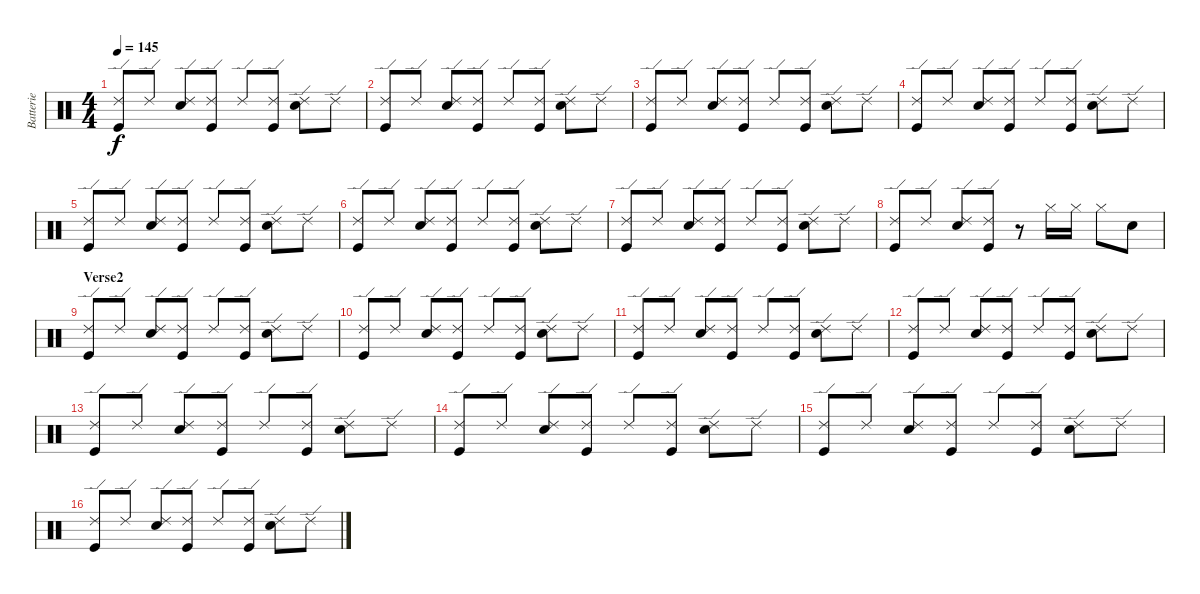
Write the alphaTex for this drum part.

\track ("Batterie" "Batterie") {instrument percussion}
\staff {score}
\articulation defaults
\ts (4 4)
\tempo 145
\clef neutral
\ks c
("Ride (edge) 2" "Kick (hit)").8{dy f} "Ride (edge) 2".8 ("Ride (edge) 2" "Snare (hit) 2").8 ("Ride (edge) 2" "Kick (hit)").8 "Ride (edge) 2".8 ("Ride (edge) 2" "Kick (hit)").8 ("Ride (edge) 2" "Snare (hit) 2").8 "Ride (edge) 2".8 |
("Ride (edge) 2" "Kick (hit)").8 "Ride (edge) 2".8 ("Ride (edge) 2" "Snare (hit) 2").8 ("Ride (edge) 2" "Kick (hit)").8 "Ride (edge) 2".8 ("Ride (edge) 2" "Kick (hit)").8 ("Ride (edge) 2" "Snare (hit) 2").8 "Ride (edge) 2".8 |
("Ride (edge) 2" "Kick (hit)").8 "Ride (edge) 2".8 ("Ride (edge) 2" "Snare (hit) 2").8 ("Ride (edge) 2" "Kick (hit)").8 "Ride (edge) 2".8 ("Ride (edge) 2" "Kick (hit)").8 ("Ride (edge) 2" "Snare (hit) 2").8 "Ride (edge) 2".8 |
("Ride (edge) 2" "Kick (hit)").8 "Ride (edge) 2".8 ("Ride (edge) 2" "Snare (hit) 2").8 ("Ride (edge) 2" "Kick (hit)").8 "Ride (edge) 2".8 ("Ride (edge) 2" "Kick (hit)").8 ("Ride (edge) 2" "Snare (hit) 2").8 "Ride (edge) 2".8 |
("Ride (edge) 2" "Kick (hit)").8 "Ride (edge) 2".8 ("Ride (edge) 2" "Snare (hit) 2").8 ("Ride (edge) 2" "Kick (hit)").8 "Ride (edge) 2".8 ("Ride (edge) 2" "Kick (hit)").8 ("Ride (edge) 2" "Snare (hit) 2").8 "Ride (edge) 2".8 |
("Ride (edge) 2" "Kick (hit)").8 "Ride (edge) 2".8 ("Ride (edge) 2" "Snare (hit) 2").8 ("Ride (edge) 2" "Kick (hit)").8 "Ride (edge) 2".8 ("Ride (edge) 2" "Kick (hit)").8 ("Ride (edge) 2" "Snare (hit) 2").8 "Ride (edge) 2".8 |
("Ride (edge) 2" "Kick (hit)").8 "Ride (edge) 2".8 ("Ride (edge) 2" "Snare (hit) 2").8 ("Ride (edge) 2" "Kick (hit)").8 "Ride (edge) 2".8 ("Ride (edge) 2" "Kick (hit)").8 ("Ride (edge) 2" "Snare (hit) 2").8 "Ride (edge) 2".8 |
("Ride (edge) 2" "Kick (hit)").8 "Ride (edge) 2".8 ("Ride (edge) 2" "Snare (hit) 2").8 ("Ride (edge) 2" "Kick (hit)").8 r.8 "Hi-Hat (closed)".16 "Hi-Hat (closed)".16 "Hi-Hat (closed)".8 "Electric Snare (hit)".8 |
\section ("" "Verse2")
("Ride (edge) 2" "Kick (hit)").8 "Ride (edge) 2".8 ("Ride (edge) 2" "Snare (hit) 2").8 ("Ride (edge) 2" "Kick (hit)").8 "Ride (edge) 2".8 ("Ride (edge) 2" "Kick (hit)").8 ("Ride (edge) 2" "Snare (hit) 2").8 "Ride (edge) 2".8 |
("Ride (edge) 2" "Kick (hit)").8 "Ride (edge) 2".8 ("Ride (edge) 2" "Snare (hit) 2").8 ("Ride (edge) 2" "Kick (hit)").8 "Ride (edge) 2".8 ("Ride (edge) 2" "Kick (hit)").8 ("Ride (edge) 2" "Snare (hit) 2").8 "Ride (edge) 2".8 |
("Ride (edge) 2" "Kick (hit)").8 "Ride (edge) 2".8 ("Ride (edge) 2" "Snare (hit) 2").8 ("Ride (edge) 2" "Kick (hit)").8 "Ride (edge) 2".8 ("Ride (edge) 2" "Kick (hit)").8 ("Ride (edge) 2" "Snare (hit) 2").8 "Ride (edge) 2".8 |
("Ride (edge) 2" "Kick (hit)").8 "Ride (edge) 2".8 ("Ride (edge) 2" "Snare (hit) 2").8 ("Ride (edge) 2" "Kick (hit)").8 "Ride (edge) 2".8 ("Ride (edge) 2" "Kick (hit)").8 ("Ride (edge) 2" "Snare (hit) 2").8 "Ride (edge) 2".8 |
("Ride (edge) 2" "Kick (hit)").8 "Ride (edge) 2".8 ("Ride (edge) 2" "Snare (hit) 2").8 ("Ride (edge) 2" "Kick (hit)").8 "Ride (edge) 2".8 ("Ride (edge) 2" "Kick (hit)").8 ("Ride (edge) 2" "Snare (hit) 2").8 "Ride (edge) 2".8 |
("Ride (edge) 2" "Kick (hit)").8 "Ride (edge) 2".8 ("Ride (edge) 2" "Snare (hit) 2").8 ("Ride (edge) 2" "Kick (hit)").8 "Ride (edge) 2".8 ("Ride (edge) 2" "Kick (hit)").8 ("Ride (edge) 2" "Snare (hit) 2").8 "Ride (edge) 2".8 |
("Ride (edge) 2" "Kick (hit)").8 "Ride (edge) 2".8 ("Ride (edge) 2" "Snare (hit) 2").8 ("Ride (edge) 2" "Kick (hit)").8 "Ride (edge) 2".8 ("Ride (edge) 2" "Kick (hit)").8 ("Ride (edge) 2" "Snare (hit) 2").8 "Ride (edge) 2".8 |
("Ride (edge) 2" "Kick (hit)").8 "Ride (edge) 2".8 ("Ride (edge) 2" "Snare (hit) 2").8 ("Ride (edge) 2" "Kick (hit)").8 "Ride (edge) 2".8 ("Ride (edge) 2" "Kick (hit)").8 ("Ride (edge) 2" "Snare (hit) 2").8 "Ride (edge) 2".8
